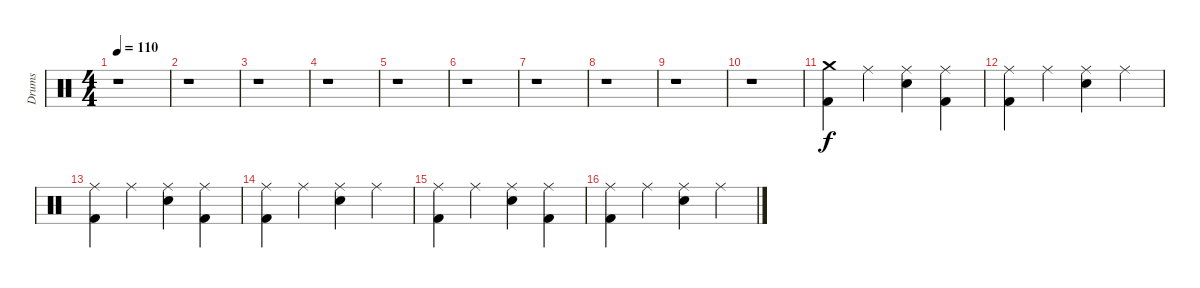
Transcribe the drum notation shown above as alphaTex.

\track ("Drums" "Drums") {instrument percussion}
\staff {score}
\articulation defaults
\ts (4 4)
\tempo 110
\clef neutral
\ks c
r.1{dy f} |
r.1 |
r.1 |
r.1 |
r.1 |
r.1 |
r.1 |
r.1 |
r.1 |
r.1 |
("Crash medium (hit)" "Kick (hit) 2").4 "Ride (middle)".4 ("Ride (middle)" "Electric Snare (hit)").4 ("Ride (middle)" "Kick (hit) 2").4 |
("Ride (middle)" "Kick (hit) 2").4 "Ride (middle)".4 ("Ride (middle)" "Electric Snare (hit)").4 "Ride (middle)".4 |
("Ride (middle)" "Kick (hit) 2").4 "Ride (middle)".4 ("Ride (middle)" "Electric Snare (hit)").4 ("Ride (middle)" "Kick (hit) 2").4 |
("Ride (middle)" "Kick (hit) 2").4 "Ride (middle)".4 ("Ride (middle)" "Electric Snare (hit)").4 "Ride (middle)".4 |
("Ride (middle)" "Kick (hit) 2").4 "Ride (middle)".4 ("Ride (middle)" "Electric Snare (hit)").4 ("Ride (middle)" "Kick (hit) 2").4 |
("Ride (middle)" "Kick (hit) 2").4 "Ride (middle)".4 ("Ride (middle)" "Electric Snare (hit)").4 "Ride (middle)".4
